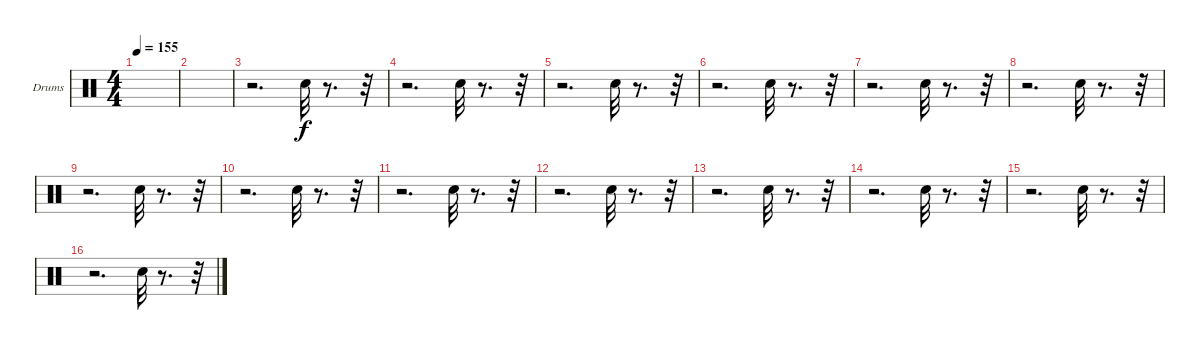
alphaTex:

\bracketExtendMode groupsimilarinstruments
\firstSystemTrackNameOrientation horizontal
\otherSystemsTrackNameOrientation horizontal
\track ("Е. Кулаков" "Drums") {instrument percussion}
\staff {score}
\articulation defaults
\ts (4 4)
\tempo 155
\clef neutral
\ks c
|
|
r.2{d} "Snare (hit) 2".32 r.8{d} r.32 |
r.2{d} "Snare (hit) 2".32 r.8{d} r.32 |
r.2{d} "Snare (hit) 2".32 r.8{d} r.32 |
r.2{d} "Snare (hit) 2".32 r.8{d} r.32 |
r.2{d} "Snare (hit) 2".32 r.8{d} r.32 |
r.2{d} "Snare (hit) 2".32 r.8{d} r.32 |
r.2{d} "Snare (hit) 2".32 r.8{d} r.32 |
r.2{d} "Snare (hit) 2".32 r.8{d} r.32 |
r.2{d} "Snare (hit) 2".32 r.8{d} r.32 |
r.2{d} "Snare (hit) 2".32 r.8{d} r.32 |
r.2{d} "Snare (hit) 2".32 r.8{d} r.32 |
r.2{d} "Snare (hit) 2".32 r.8{d} r.32 |
r.2{d} "Snare (hit) 2".32 r.8{d} r.32 |
r.2{d} "Snare (hit) 2".32 r.8{d} r.32
